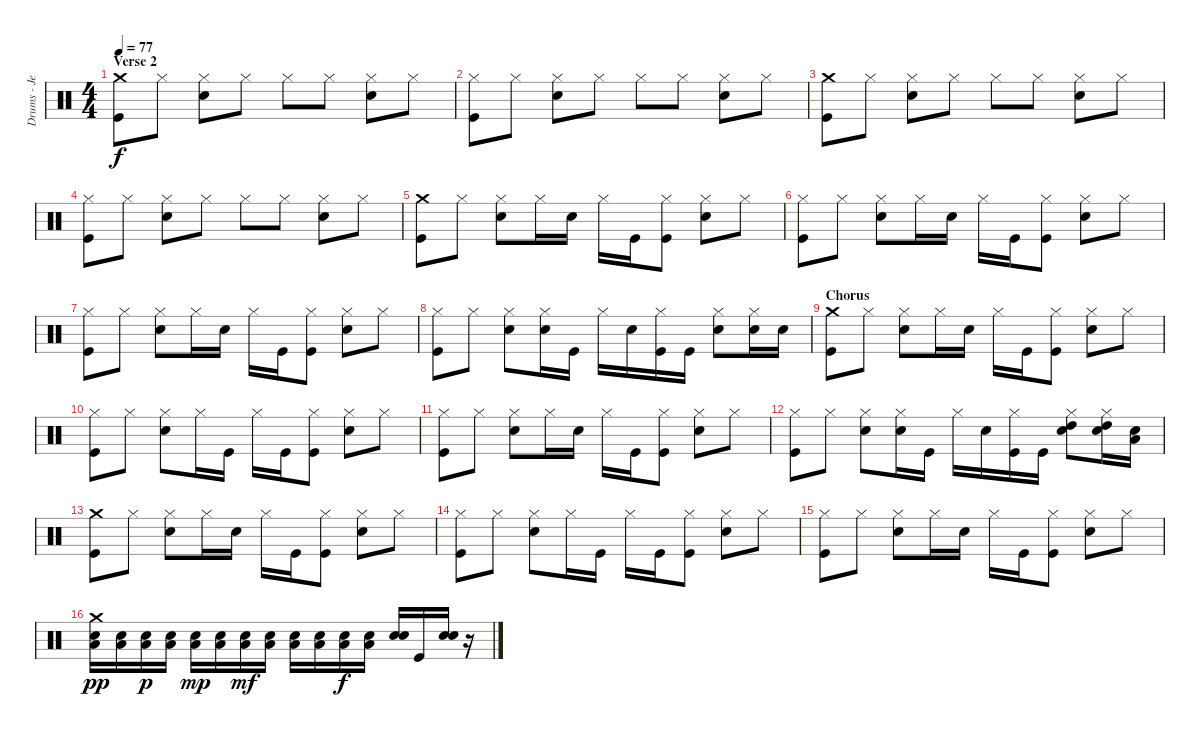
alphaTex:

\track ("Drums - Jeff" "Drums - Je") {instrument percussion}
\staff {score}
\articulation defaults
\ts (4 4)
\section ("" "Verse 2")
\tempo 77
\clef neutral
\ks c
("Crash medium (hit)" "Kick (hit)").8{dy f} "Hi-Hat (closed)".8 ("Hi-Hat (closed)" "Electric Snare (hit)").8 "Hi-Hat (closed)".8 "Hi-Hat (closed)".8 "Hi-Hat (closed)".8 ("Hi-Hat (closed)" "Electric Snare (hit)").8 "Hi-Hat (closed)".8 |
("Hi-Hat (closed)" "Kick (hit)").8 "Hi-Hat (closed)".8 ("Hi-Hat (closed)" "Electric Snare (hit)").8 "Hi-Hat (closed)".8 "Hi-Hat (closed)".8 "Hi-Hat (closed)".8 ("Hi-Hat (closed)" "Electric Snare (hit)").8 "Hi-Hat (closed)".8 |
("Crash medium (hit)" "Kick (hit)").8 "Hi-Hat (closed)".8 ("Hi-Hat (closed)" "Electric Snare (hit)").8 "Hi-Hat (closed)".8 "Hi-Hat (closed)".8 "Hi-Hat (closed)".8 ("Hi-Hat (closed)" "Electric Snare (hit)").8 "Hi-Hat (closed)".8 |
("Hi-Hat (closed)" "Kick (hit)").8 "Hi-Hat (closed)".8 ("Hi-Hat (closed)" "Electric Snare (hit)").8 "Hi-Hat (closed)".8 "Hi-Hat (closed)".8 "Hi-Hat (closed)".8 ("Hi-Hat (closed)" "Electric Snare (hit)").8 "Hi-Hat (closed)".8 |
("Crash medium (hit)" "Kick (hit)").8 "Hi-Hat (closed)".8 ("Hi-Hat (closed)" "Electric Snare (hit)").8 "Hi-Hat (closed)".16 "Electric Snare (hit)".16 "Hi-Hat (closed)".16 "Kick (hit)".16 ("Hi-Hat (closed)" "Kick (hit)").8 ("Hi-Hat (closed)" "Electric Snare (hit)").8 "Hi-Hat (closed)".8 |
("Hi-Hat (closed)" "Kick (hit)").8 "Hi-Hat (closed)".8 ("Hi-Hat (closed)" "Electric Snare (hit)").8 "Hi-Hat (closed)".16 "Electric Snare (hit)".16 "Hi-Hat (closed)".16 "Kick (hit)".16 ("Hi-Hat (closed)" "Kick (hit)").8 ("Hi-Hat (closed)" "Electric Snare (hit)").8 "Hi-Hat (closed)".8 |
("Hi-Hat (closed)" "Kick (hit)").8 "Hi-Hat (closed)".8 ("Hi-Hat (closed)" "Electric Snare (hit)").8 "Hi-Hat (closed)".16 "Electric Snare (hit)".16 "Hi-Hat (closed)".16 "Kick (hit)".16 ("Hi-Hat (closed)" "Kick (hit)").8 ("Hi-Hat (closed)" "Electric Snare (hit)").8 "Hi-Hat (closed)".8 |
("Hi-Hat (closed)" "Kick (hit)").8 "Hi-Hat (closed)".8 ("Hi-Hat (closed)" "Electric Snare (hit)").8 ("Hi-Hat (closed)" "Electric Snare (hit)").16 "Kick (hit)".16 "Hi-Hat (closed)".16 "Electric Snare (hit)".16 ("Hi-Hat (closed)" "Kick (hit)").16 "Kick (hit)".16 ("Hi-Hat (closed)" "Electric Snare (hit)").8 ("Hi-Hat (closed)" "Electric Snare (hit)").16 "Electric Snare (hit)".16 |
\section ("" "Chorus")
("Crash medium (hit)" "Kick (hit)").8 "Hi-Hat (closed)".8 ("Hi-Hat (closed)" "Electric Snare (hit)").8 "Hi-Hat (closed)".16 "Electric Snare (hit)".16 "Hi-Hat (closed)".16 "Kick (hit)".16 ("Hi-Hat (closed)" "Kick (hit)").8 ("Hi-Hat (closed)" "Electric Snare (hit)").8 "Hi-Hat (closed)".8 |
("Hi-Hat (closed)" "Kick (hit)").8 "Hi-Hat (closed)".8 ("Hi-Hat (closed)" "Electric Snare (hit)").8 "Hi-Hat (closed)".16 "Kick (hit)".16 "Hi-Hat (closed)".16 "Kick (hit)".16 ("Hi-Hat (closed)" "Kick (hit)").8 ("Hi-Hat (closed)" "Electric Snare (hit)").8 "Hi-Hat (closed)".8 |
("Hi-Hat (closed)" "Kick (hit)").8 "Hi-Hat (closed)".8 ("Hi-Hat (closed)" "Electric Snare (hit)").8 "Hi-Hat (closed)".16 "Electric Snare (hit)".16 "Hi-Hat (closed)".16 "Kick (hit)".16 ("Hi-Hat (closed)" "Kick (hit)").8 ("Hi-Hat (closed)" "Electric Snare (hit)").8 "Hi-Hat (closed)".8 |
("Hi-Hat (closed)" "Kick (hit)").8 "Hi-Hat (closed)".8 ("Hi-Hat (closed)" "Electric Snare (hit)").8 ("Hi-Hat (closed)" "Electric Snare (hit)").16 "Kick (hit)".16 "Hi-Hat (closed)".16 "Electric Snare (hit)".16 ("Hi-Hat (closed)" "Kick (hit)").16 "Kick (hit)".16 ("High Tom (hit)" "Hi-Hat (closed)" "Electric Snare (hit)").8 ("High Tom (hit)" "Hi-Hat (closed)" "Electric Snare (hit)").16 ("Low Tom (hit)" "Electric Snare (hit)").16 |
("Crash medium (hit)" "Kick (hit)").8 "Hi-Hat (closed)".8 ("Hi-Hat (closed)" "Electric Snare (hit)").8 "Hi-Hat (closed)".16 "Electric Snare (hit)".16 "Hi-Hat (closed)".16 "Kick (hit)".16 ("Hi-Hat (closed)" "Kick (hit)").8 ("Hi-Hat (closed)" "Electric Snare (hit)").8 "Hi-Hat (closed)".8 |
("Hi-Hat (closed)" "Kick (hit)").8 "Hi-Hat (closed)".8 ("Hi-Hat (closed)" "Electric Snare (hit)").8 "Hi-Hat (closed)".16 "Kick (hit)".16 "Hi-Hat (closed)".16 "Kick (hit)".16 ("Hi-Hat (closed)" "Kick (hit)").8 ("Hi-Hat (closed)" "Electric Snare (hit)").8 "Hi-Hat (closed)".8 |
("Hi-Hat (closed)" "Kick (hit)").8 "Hi-Hat (closed)".8 ("Hi-Hat (closed)" "Electric Snare (hit)").8 "Hi-Hat (closed)".16 "Electric Snare (hit)".16 "Hi-Hat (closed)".16 "Kick (hit)".16 ("Hi-Hat (closed)" "Kick (hit)").8 ("Hi-Hat (closed)" "Electric Snare (hit)").8 "Hi-Hat (closed)".8 |
("Crash medium (hit)" "Low Tom (hit)" "Electric Snare (hit)").16{dy pp} ("Low Tom (hit)" "Electric Snare (hit)").16 ("Low Tom (hit)" "Electric Snare (hit)").16{dy p} ("Low Tom (hit)" "Electric Snare (hit)").16 ("Low Tom (hit)" "Electric Snare (hit)").16{dy mp} ("Low Tom (hit)" "Electric Snare (hit)").16 ("Low Tom (hit)" "Electric Snare (hit)").16{dy mf} ("Low Tom (hit)" "Electric Snare (hit)").16 ("Low Tom (hit)" "Electric Snare (hit)").16 ("Low Tom (hit)" "Electric Snare (hit)").16 ("Low Tom (hit)" "Electric Snare (hit)").16{dy f} ("Low Tom (hit)" "Electric Snare (hit)").16 ("Electric Snare (hit)" "Electric Snare (hit)").16 "Kick (hit)".16 ("Electric Snare (hit)" "Electric Snare (hit)").16 r.16
